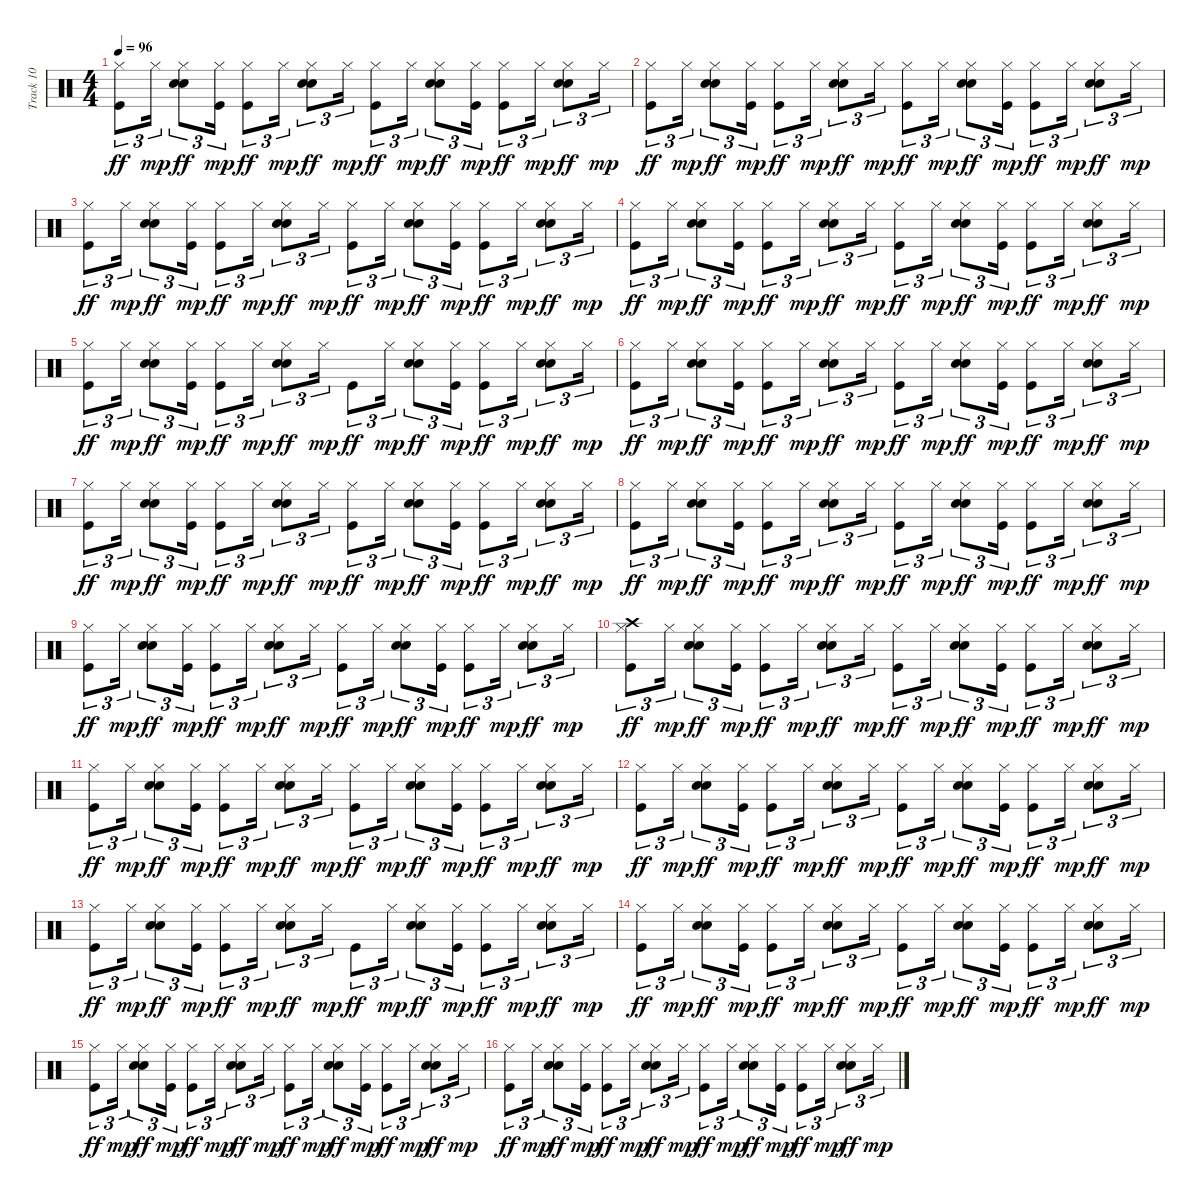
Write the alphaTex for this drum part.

\track ("Track 10" "Track 10") {instrument percussion}
\staff {score}
\articulation defaults
\ts (4 4)
\tempo 96
\clef neutral
\ks c
("Kick (hit)" "Hi-Hat (closed)").8{tu (3 2) dy ff} "Hi-Hat (closed)".16{tu (3 2) dy mp} ("Snare (hit) 2" "Hand Clap (hit)" "Hi-Hat (closed)").8{tu (3 2) dy ff} ("Kick (hit)" "Hi-Hat (closed)").16{tu (3 2) dy mp} ("Kick (hit)" "Hi-Hat (closed)").8{tu (3 2) dy ff} "Hi-Hat (closed)".16{tu (3 2) dy mp} ("Snare (hit) 2" "Hand Clap (hit)" "Hi-Hat (closed)").8{tu (3 2) dy ff} "Hi-Hat (closed)".16{tu (3 2) dy mp} ("Kick (hit)" "Hi-Hat (closed)").8{tu (3 2) dy ff} "Hi-Hat (closed)".16{tu (3 2) dy mp} ("Snare (hit) 2" "Hand Clap (hit)" "Hi-Hat (closed)").8{tu (3 2) dy ff} ("Kick (hit)" "Hi-Hat (closed)").16{tu (3 2) dy mp} ("Kick (hit)" "Hi-Hat (closed)").8{tu (3 2) dy ff} "Hi-Hat (closed)".16{tu (3 2) dy mp} ("Snare (hit) 2" "Hand Clap (hit)" "Hi-Hat (closed)").8{tu (3 2) dy ff} "Hi-Hat (closed)".16{tu (3 2) dy mp} |
("Kick (hit)" "Hi-Hat (closed)").8{tu (3 2) dy ff} "Hi-Hat (closed)".16{tu (3 2) dy mp} ("Snare (hit) 2" "Hand Clap (hit)" "Hi-Hat (closed)").8{tu (3 2) dy ff} ("Kick (hit)" "Hi-Hat (closed)").16{tu (3 2) dy mp} ("Kick (hit)" "Hi-Hat (closed)").8{tu (3 2) dy ff} "Hi-Hat (closed)".16{tu (3 2) dy mp} ("Snare (hit) 2" "Hand Clap (hit)" "Hi-Hat (closed)").8{tu (3 2) dy ff} "Hi-Hat (closed)".16{tu (3 2) dy mp} ("Kick (hit)" "Hi-Hat (closed)").8{tu (3 2) dy ff} "Hi-Hat (closed)".16{tu (3 2) dy mp} ("Snare (hit) 2" "Hand Clap (hit)" "Hi-Hat (closed)").8{tu (3 2) dy ff} ("Kick (hit)" "Hi-Hat (closed)").16{tu (3 2) dy mp} ("Kick (hit)" "Hi-Hat (closed)").8{tu (3 2) dy ff} "Hi-Hat (closed)".16{tu (3 2) dy mp} ("Snare (hit) 2" "Hand Clap (hit)" "Hi-Hat (closed)").8{tu (3 2) dy ff} "Hi-Hat (closed)".16{tu (3 2) dy mp} |
("Kick (hit)" "Hi-Hat (closed)").8{tu (3 2) dy ff} "Hi-Hat (closed)".16{tu (3 2) dy mp} ("Snare (hit) 2" "Hand Clap (hit)" "Hi-Hat (closed)").8{tu (3 2) dy ff} ("Kick (hit)" "Hi-Hat (closed)").16{tu (3 2) dy mp} ("Kick (hit)" "Hi-Hat (closed)").8{tu (3 2) dy ff} "Hi-Hat (closed)".16{tu (3 2) dy mp} ("Snare (hit) 2" "Hand Clap (hit)" "Hi-Hat (closed)").8{tu (3 2) dy ff} "Hi-Hat (closed)".16{tu (3 2) dy mp} ("Kick (hit)" "Hi-Hat (closed)").8{tu (3 2) dy ff} "Hi-Hat (closed)".16{tu (3 2) dy mp} ("Snare (hit) 2" "Hand Clap (hit)" "Hi-Hat (closed)").8{tu (3 2) dy ff} ("Kick (hit)" "Hi-Hat (closed)").16{tu (3 2) dy mp} ("Kick (hit)" "Hi-Hat (closed)").8{tu (3 2) dy ff} "Hi-Hat (closed)".16{tu (3 2) dy mp} ("Snare (hit) 2" "Hand Clap (hit)" "Hi-Hat (closed)").8{tu (3 2) dy ff} "Hi-Hat (closed)".16{tu (3 2) dy mp} |
("Kick (hit)" "Hi-Hat (closed)").8{tu (3 2) dy ff} "Hi-Hat (closed)".16{tu (3 2) dy mp} ("Snare (hit) 2" "Hand Clap (hit)" "Hi-Hat (closed)").8{tu (3 2) dy ff} ("Kick (hit)" "Hi-Hat (closed)").16{tu (3 2) dy mp} ("Kick (hit)" "Hi-Hat (closed)").8{tu (3 2) dy ff} "Hi-Hat (closed)".16{tu (3 2) dy mp} ("Snare (hit) 2" "Hand Clap (hit)" "Hi-Hat (closed)").8{tu (3 2) dy ff} "Hi-Hat (closed)".16{tu (3 2) dy mp} ("Kick (hit)" "Hi-Hat (closed)").8{tu (3 2) dy ff} "Hi-Hat (closed)".16{tu (3 2) dy mp} ("Snare (hit) 2" "Hand Clap (hit)" "Hi-Hat (closed)").8{tu (3 2) dy ff} ("Kick (hit)" "Hi-Hat (closed)").16{tu (3 2) dy mp} ("Kick (hit)" "Hi-Hat (closed)").8{tu (3 2) dy ff} "Hi-Hat (closed)".16{tu (3 2) dy mp} ("Snare (hit) 2" "Hand Clap (hit)" "Hi-Hat (closed)").8{tu (3 2) dy ff} "Hi-Hat (closed)".16{tu (3 2) dy mp} |
("Kick (hit)" "Hi-Hat (closed)").8{tu (3 2) dy ff} "Hi-Hat (closed)".16{tu (3 2) dy mp} ("Snare (hit) 2" "Hand Clap (hit)" "Hi-Hat (closed)").8{tu (3 2) dy ff} ("Kick (hit)" "Hi-Hat (closed)").16{tu (3 2) dy mp} ("Kick (hit)" "Hi-Hat (closed)").8{tu (3 2) dy ff} "Hi-Hat (closed)".16{tu (3 2) dy mp} ("Snare (hit) 2" "Hand Clap (hit)" "Hi-Hat (closed)").8{tu (3 2) dy ff} "Hi-Hat (closed)".16{tu (3 2) dy mp} "Kick (hit)".8{tu (3 2) dy ff} "Hi-Hat (closed)".16{tu (3 2) dy mp} ("Snare (hit) 2" "Hand Clap (hit)" "Hi-Hat (closed)").8{tu (3 2) dy ff} ("Kick (hit)" "Hi-Hat (closed)").16{tu (3 2) dy mp} ("Kick (hit)" "Hi-Hat (closed)").8{tu (3 2) dy ff} "Hi-Hat (closed)".16{tu (3 2) dy mp} ("Snare (hit) 2" "Hand Clap (hit)" "Hi-Hat (closed)").8{tu (3 2) dy ff} "Hi-Hat (closed)".16{tu (3 2) dy mp} |
("Kick (hit)" "Hi-Hat (closed)").8{tu (3 2) dy ff} "Hi-Hat (closed)".16{tu (3 2) dy mp} ("Snare (hit) 2" "Hand Clap (hit)" "Hi-Hat (closed)").8{tu (3 2) dy ff} ("Kick (hit)" "Hi-Hat (closed)").16{tu (3 2) dy mp} ("Kick (hit)" "Hi-Hat (closed)").8{tu (3 2) dy ff} "Hi-Hat (closed)".16{tu (3 2) dy mp} ("Snare (hit) 2" "Hand Clap (hit)" "Hi-Hat (closed)").8{tu (3 2) dy ff} "Hi-Hat (closed)".16{tu (3 2) dy mp} ("Kick (hit)" "Hi-Hat (closed)").8{tu (3 2) dy ff} "Hi-Hat (closed)".16{tu (3 2) dy mp} ("Snare (hit) 2" "Hand Clap (hit)" "Hi-Hat (closed)").8{tu (3 2) dy ff} ("Kick (hit)" "Hi-Hat (closed)").16{tu (3 2) dy mp} ("Kick (hit)" "Hi-Hat (closed)").8{tu (3 2) dy ff} "Hi-Hat (closed)".16{tu (3 2) dy mp} ("Snare (hit) 2" "Hand Clap (hit)" "Hi-Hat (closed)").8{tu (3 2) dy ff} "Hi-Hat (closed)".16{tu (3 2) dy mp} |
("Kick (hit)" "Hi-Hat (closed)").8{tu (3 2) dy ff} "Hi-Hat (closed)".16{tu (3 2) dy mp} ("Snare (hit) 2" "Hand Clap (hit)" "Hi-Hat (closed)").8{tu (3 2) dy ff} ("Kick (hit)" "Hi-Hat (closed)").16{tu (3 2) dy mp} ("Kick (hit)" "Hi-Hat (closed)").8{tu (3 2) dy ff} "Hi-Hat (closed)".16{tu (3 2) dy mp} ("Snare (hit) 2" "Hand Clap (hit)" "Hi-Hat (closed)").8{tu (3 2) dy ff} "Hi-Hat (closed)".16{tu (3 2) dy mp} ("Kick (hit)" "Hi-Hat (closed)").8{tu (3 2) dy ff} "Hi-Hat (closed)".16{tu (3 2) dy mp} ("Snare (hit) 2" "Hand Clap (hit)" "Hi-Hat (closed)").8{tu (3 2) dy ff} ("Kick (hit)" "Hi-Hat (closed)").16{tu (3 2) dy mp} ("Kick (hit)" "Hi-Hat (closed)").8{tu (3 2) dy ff} "Hi-Hat (closed)".16{tu (3 2) dy mp} ("Snare (hit) 2" "Hand Clap (hit)" "Hi-Hat (closed)").8{tu (3 2) dy ff} "Hi-Hat (closed)".16{tu (3 2) dy mp} |
("Kick (hit)" "Hi-Hat (closed)").8{tu (3 2) dy ff} "Hi-Hat (closed)".16{tu (3 2) dy mp} ("Snare (hit) 2" "Hand Clap (hit)" "Hi-Hat (closed)").8{tu (3 2) dy ff} ("Kick (hit)" "Hi-Hat (closed)").16{tu (3 2) dy mp} ("Kick (hit)" "Hi-Hat (closed)").8{tu (3 2) dy ff} "Hi-Hat (closed)".16{tu (3 2) dy mp} ("Snare (hit) 2" "Hand Clap (hit)" "Hi-Hat (closed)").8{tu (3 2) dy ff} "Hi-Hat (closed)".16{tu (3 2) dy mp} ("Kick (hit)" "Hi-Hat (closed)").8{tu (3 2) dy ff} "Hi-Hat (closed)".16{tu (3 2) dy mp} ("Snare (hit) 2" "Hand Clap (hit)" "Hi-Hat (closed)").8{tu (3 2) dy ff} ("Kick (hit)" "Hi-Hat (closed)").16{tu (3 2) dy mp} ("Kick (hit)" "Hi-Hat (closed)").8{tu (3 2) dy ff} "Hi-Hat (closed)".16{tu (3 2) dy mp} ("Snare (hit) 2" "Hand Clap (hit)" "Hi-Hat (closed)").8{tu (3 2) dy ff} "Hi-Hat (closed)".16{tu (3 2) dy mp} |
("Kick (hit)" "Hi-Hat (closed)").8{tu (3 2) dy ff} "Hi-Hat (closed)".16{tu (3 2) dy mp} ("Snare (hit) 2" "Hand Clap (hit)" "Hi-Hat (closed)").8{tu (3 2) dy ff} ("Kick (hit)" "Hi-Hat (closed)").16{tu (3 2) dy mp} ("Kick (hit)" "Hi-Hat (closed)").8{tu (3 2) dy ff} "Hi-Hat (closed)".16{tu (3 2) dy mp} ("Snare (hit) 2" "Hand Clap (hit)" "Hi-Hat (closed)").8{tu (3 2) dy ff} "Hi-Hat (closed)".16{tu (3 2) dy mp} ("Kick (hit)" "Hi-Hat (closed)").8{tu (3 2) dy ff} "Hi-Hat (closed)".16{tu (3 2) dy mp} ("Snare (hit) 2" "Hand Clap (hit)" "Hi-Hat (closed)").8{tu (3 2) dy ff} ("Kick (hit)" "Hi-Hat (closed)").16{tu (3 2) dy mp} ("Kick (hit)" "Hi-Hat (closed)").8{tu (3 2) dy ff} "Hi-Hat (closed)".16{tu (3 2) dy mp} ("Snare (hit) 2" "Hand Clap (hit)" "Hi-Hat (closed)").8{tu (3 2) dy ff} "Hi-Hat (closed)".16{tu (3 2) dy mp} |
("Kick (hit)" "Hi-Hat (closed)" "Crash high (hit)").8{tu (3 2) dy ff} "Hi-Hat (closed)".16{tu (3 2) dy mp} ("Snare (hit) 2" "Hand Clap (hit)" "Hi-Hat (closed)").8{tu (3 2) dy ff} ("Kick (hit)" "Hi-Hat (closed)").16{tu (3 2) dy mp} ("Kick (hit)" "Hi-Hat (closed)").8{tu (3 2) dy ff} "Hi-Hat (closed)".16{tu (3 2) dy mp} ("Snare (hit) 2" "Hand Clap (hit)" "Hi-Hat (closed)").8{tu (3 2) dy ff} "Hi-Hat (closed)".16{tu (3 2) dy mp} ("Kick (hit)" "Hi-Hat (closed)").8{tu (3 2) dy ff} "Hi-Hat (closed)".16{tu (3 2) dy mp} ("Snare (hit) 2" "Hand Clap (hit)" "Hi-Hat (closed)").8{tu (3 2) dy ff} ("Kick (hit)" "Hi-Hat (closed)").16{tu (3 2) dy mp} ("Kick (hit)" "Hi-Hat (closed)").8{tu (3 2) dy ff} "Hi-Hat (closed)".16{tu (3 2) dy mp} ("Snare (hit) 2" "Hand Clap (hit)" "Hi-Hat (closed)").8{tu (3 2) dy ff} "Hi-Hat (closed)".16{tu (3 2) dy mp} |
("Kick (hit)" "Hi-Hat (closed)").8{tu (3 2) dy ff} "Hi-Hat (closed)".16{tu (3 2) dy mp} ("Snare (hit) 2" "Hand Clap (hit)" "Hi-Hat (closed)").8{tu (3 2) dy ff} ("Kick (hit)" "Hi-Hat (closed)").16{tu (3 2) dy mp} ("Kick (hit)" "Hi-Hat (closed)").8{tu (3 2) dy ff} "Hi-Hat (closed)".16{tu (3 2) dy mp} ("Snare (hit) 2" "Hand Clap (hit)" "Hi-Hat (closed)").8{tu (3 2) dy ff} "Hi-Hat (closed)".16{tu (3 2) dy mp} ("Kick (hit)" "Hi-Hat (closed)").8{tu (3 2) dy ff} "Hi-Hat (closed)".16{tu (3 2) dy mp} ("Snare (hit) 2" "Hand Clap (hit)" "Hi-Hat (closed)").8{tu (3 2) dy ff} ("Kick (hit)" "Hi-Hat (closed)").16{tu (3 2) dy mp} ("Kick (hit)" "Hi-Hat (closed)").8{tu (3 2) dy ff} "Hi-Hat (closed)".16{tu (3 2) dy mp} ("Snare (hit) 2" "Hand Clap (hit)" "Hi-Hat (closed)").8{tu (3 2) dy ff} "Hi-Hat (closed)".16{tu (3 2) dy mp} |
("Kick (hit)" "Hi-Hat (closed)").8{tu (3 2) dy ff} "Hi-Hat (closed)".16{tu (3 2) dy mp} ("Snare (hit) 2" "Hand Clap (hit)" "Hi-Hat (closed)").8{tu (3 2) dy ff} ("Kick (hit)" "Hi-Hat (closed)").16{tu (3 2) dy mp} ("Kick (hit)" "Hi-Hat (closed)").8{tu (3 2) dy ff} "Hi-Hat (closed)".16{tu (3 2) dy mp} ("Snare (hit) 2" "Hand Clap (hit)" "Hi-Hat (closed)").8{tu (3 2) dy ff} "Hi-Hat (closed)".16{tu (3 2) dy mp} ("Kick (hit)" "Hi-Hat (closed)").8{tu (3 2) dy ff} "Hi-Hat (closed)".16{tu (3 2) dy mp} ("Snare (hit) 2" "Hand Clap (hit)" "Hi-Hat (closed)").8{tu (3 2) dy ff} ("Kick (hit)" "Hi-Hat (closed)").16{tu (3 2) dy mp} ("Kick (hit)" "Hi-Hat (closed)").8{tu (3 2) dy ff} "Hi-Hat (closed)".16{tu (3 2) dy mp} ("Snare (hit) 2" "Hand Clap (hit)" "Hi-Hat (closed)").8{tu (3 2) dy ff} "Hi-Hat (closed)".16{tu (3 2) dy mp} |
("Kick (hit)" "Hi-Hat (closed)").8{tu (3 2) dy ff} "Hi-Hat (closed)".16{tu (3 2) dy mp} ("Snare (hit) 2" "Hand Clap (hit)" "Hi-Hat (closed)").8{tu (3 2) dy ff} ("Kick (hit)" "Hi-Hat (closed)").16{tu (3 2) dy mp} ("Kick (hit)" "Hi-Hat (closed)").8{tu (3 2) dy ff} "Hi-Hat (closed)".16{tu (3 2) dy mp} ("Snare (hit) 2" "Hand Clap (hit)" "Hi-Hat (closed)").8{tu (3 2) dy ff} "Hi-Hat (closed)".16{tu (3 2) dy mp} "Kick (hit)".8{tu (3 2) dy ff} "Hi-Hat (closed)".16{tu (3 2) dy mp} ("Snare (hit) 2" "Hand Clap (hit)" "Hi-Hat (closed)").8{tu (3 2) dy ff} ("Kick (hit)" "Hi-Hat (closed)").16{tu (3 2) dy mp} ("Kick (hit)" "Hi-Hat (closed)").8{tu (3 2) dy ff} "Hi-Hat (closed)".16{tu (3 2) dy mp} ("Snare (hit) 2" "Hand Clap (hit)" "Hi-Hat (closed)").8{tu (3 2) dy ff} "Hi-Hat (closed)".16{tu (3 2) dy mp} |
("Kick (hit)" "Hi-Hat (closed)").8{tu (3 2) dy ff} "Hi-Hat (closed)".16{tu (3 2) dy mp} ("Snare (hit) 2" "Hand Clap (hit)" "Hi-Hat (closed)").8{tu (3 2) dy ff} ("Kick (hit)" "Hi-Hat (closed)").16{tu (3 2) dy mp} ("Kick (hit)" "Hi-Hat (closed)").8{tu (3 2) dy ff} "Hi-Hat (closed)".16{tu (3 2) dy mp} ("Snare (hit) 2" "Hand Clap (hit)" "Hi-Hat (closed)").8{tu (3 2) dy ff} "Hi-Hat (closed)".16{tu (3 2) dy mp} ("Kick (hit)" "Hi-Hat (closed)").8{tu (3 2) dy ff} "Hi-Hat (closed)".16{tu (3 2) dy mp} ("Snare (hit) 2" "Hand Clap (hit)" "Hi-Hat (closed)").8{tu (3 2) dy ff} ("Kick (hit)" "Hi-Hat (closed)").16{tu (3 2) dy mp} ("Kick (hit)" "Hi-Hat (closed)").8{tu (3 2) dy ff} "Hi-Hat (closed)".16{tu (3 2) dy mp} ("Snare (hit) 2" "Hand Clap (hit)" "Hi-Hat (closed)").8{tu (3 2) dy ff} "Hi-Hat (closed)".16{tu (3 2) dy mp} |
("Kick (hit)" "Hi-Hat (closed)").8{tu (3 2) dy ff} "Hi-Hat (closed)".16{tu (3 2) dy mp} ("Snare (hit) 2" "Hand Clap (hit)" "Hi-Hat (closed)").8{tu (3 2) dy ff} ("Kick (hit)" "Hi-Hat (closed)").16{tu (3 2) dy mp} ("Kick (hit)" "Hi-Hat (closed)").8{tu (3 2) dy ff} "Hi-Hat (closed)".16{tu (3 2) dy mp} ("Snare (hit) 2" "Hand Clap (hit)" "Hi-Hat (closed)").8{tu (3 2) dy ff} "Hi-Hat (closed)".16{tu (3 2) dy mp} ("Kick (hit)" "Hi-Hat (closed)").8{tu (3 2) dy ff} "Hi-Hat (closed)".16{tu (3 2) dy mp} ("Snare (hit) 2" "Hand Clap (hit)" "Hi-Hat (closed)").8{tu (3 2) dy ff} ("Kick (hit)" "Hi-Hat (closed)").16{tu (3 2) dy mp} ("Kick (hit)" "Hi-Hat (closed)").8{tu (3 2) dy ff} "Hi-Hat (closed)".16{tu (3 2) dy mp} ("Snare (hit) 2" "Hand Clap (hit)" "Hi-Hat (closed)").8{tu (3 2) dy ff} "Hi-Hat (closed)".16{tu (3 2) dy mp} |
("Kick (hit)" "Hi-Hat (closed)").8{tu (3 2) dy ff} "Hi-Hat (closed)".16{tu (3 2) dy mp} ("Snare (hit) 2" "Hand Clap (hit)" "Hi-Hat (closed)").8{tu (3 2) dy ff} ("Kick (hit)" "Hi-Hat (closed)").16{tu (3 2) dy mp} ("Kick (hit)" "Hi-Hat (closed)").8{tu (3 2) dy ff} "Hi-Hat (closed)".16{tu (3 2) dy mp} ("Snare (hit) 2" "Hand Clap (hit)" "Hi-Hat (closed)").8{tu (3 2) dy ff} "Hi-Hat (closed)".16{tu (3 2) dy mp} ("Kick (hit)" "Hi-Hat (closed)").8{tu (3 2) dy ff} "Hi-Hat (closed)".16{tu (3 2) dy mp} ("Snare (hit) 2" "Hand Clap (hit)" "Hi-Hat (closed)").8{tu (3 2) dy ff} ("Kick (hit)" "Hi-Hat (closed)").16{tu (3 2) dy mp} ("Kick (hit)" "Hi-Hat (closed)").8{tu (3 2) dy ff} "Hi-Hat (closed)".16{tu (3 2) dy mp} ("Snare (hit) 2" "Hand Clap (hit)" "Hi-Hat (closed)").8{tu (3 2) dy ff} "Hi-Hat (closed)".16{tu (3 2) dy mp}
